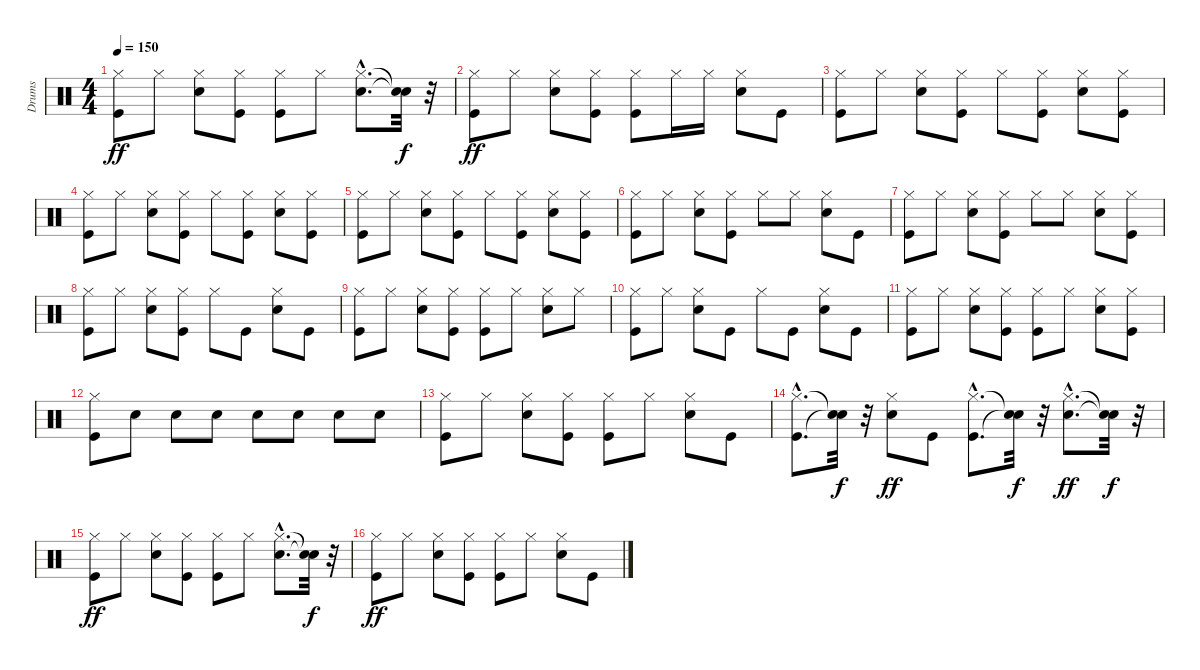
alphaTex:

\track ("Drums" "Drums") {instrument percussion}
\staff {score}
\articulation defaults
\ts (4 4)
\tempo 150
\clef neutral
\ks c
("Kick (hit)" "Hi-Hat (closed)").8{dy ff} "Hi-Hat (closed)".8 ("Snare (hit) 2" "Hi-Hat (closed)").8 ("Kick (hit)" "Hi-Hat (closed)").8 ("Kick (hit)" "Hi-Hat (closed)").8 "Hi-Hat (closed)".8 ("Snare (hit) 2"{hac} "Hi-Hat (closed)"{hac}).8{d} ("Snare (hit)"{t} "Snare (hit)"{t}).32{dy f} r.32 |
("Kick (hit)" "Hi-Hat (closed)").8{dy ff} "Hi-Hat (closed)".8 ("Snare (hit) 2" "Hi-Hat (closed)").8 ("Kick (hit)" "Hi-Hat (closed)").8 ("Kick (hit)" "Hi-Hat (closed)").8 "Hi-Hat (closed)".16 "Hi-Hat (closed)".16 ("Snare (hit) 2" "Hi-Hat (closed)").8 "Kick (hit)".8 |
("Kick (hit)" "Hi-Hat (closed)").8 "Hi-Hat (closed)".8 ("Snare (hit) 2" "Hi-Hat (closed)").8 ("Kick (hit)" "Hi-Hat (closed)").8 "Hi-Hat (closed)".8 ("Kick (hit)" "Hi-Hat (closed)").8 ("Snare (hit) 2" "Hi-Hat (closed)").8 ("Kick (hit)" "Hi-Hat (closed)").8 |
("Kick (hit)" "Hi-Hat (closed)").8 "Hi-Hat (closed)".8 ("Snare (hit) 2" "Hi-Hat (closed)").8 ("Kick (hit)" "Hi-Hat (closed)").8 "Hi-Hat (closed)".8 ("Kick (hit)" "Hi-Hat (closed)").8 ("Snare (hit) 2" "Hi-Hat (closed)").8 ("Kick (hit)" "Hi-Hat (closed)").8 |
("Kick (hit)" "Hi-Hat (closed)").8 "Hi-Hat (closed)".8 ("Snare (hit) 2" "Hi-Hat (closed)").8 ("Kick (hit)" "Hi-Hat (closed)").8 "Hi-Hat (closed)".8 ("Kick (hit)" "Hi-Hat (closed)").8 ("Snare (hit) 2" "Hi-Hat (closed)").8 ("Kick (hit)" "Hi-Hat (closed)").8 |
("Kick (hit)" "Hi-Hat (closed)").8 "Hi-Hat (closed)".8 ("Snare (hit) 2" "Hi-Hat (closed)").8 ("Kick (hit)" "Hi-Hat (closed)").8 "Hi-Hat (closed)".8 "Hi-Hat (closed)".8 ("Snare (hit) 2" "Hi-Hat (closed)").8 "Kick (hit)".8 |
("Kick (hit)" "Hi-Hat (closed)").8 "Hi-Hat (closed)".8 ("Snare (hit) 2" "Hi-Hat (closed)").8 ("Kick (hit)" "Hi-Hat (closed)").8 "Hi-Hat (closed)".8 "Hi-Hat (closed)".8 ("Snare (hit) 2" "Hi-Hat (closed)").8 ("Kick (hit)" "Hi-Hat (closed)").8 |
("Kick (hit)" "Hi-Hat (closed)").8 "Hi-Hat (closed)".8 ("Snare (hit) 2" "Hi-Hat (closed)").8 ("Kick (hit)" "Hi-Hat (closed)").8 "Hi-Hat (closed)".8 "Kick (hit)".8 ("Snare (hit) 2" "Hi-Hat (closed)").8 "Kick (hit)".8 |
("Kick (hit)" "Hi-Hat (closed)").8 "Hi-Hat (closed)".8 ("Snare (hit) 2" "Hi-Hat (closed)").8 ("Kick (hit)" "Hi-Hat (closed)").8 ("Kick (hit)" "Hi-Hat (closed)").8 "Hi-Hat (closed)".8 ("Snare (hit) 2" "Hi-Hat (closed)").8 "Hi-Hat (closed)".8 |
("Kick (hit)" "Hi-Hat (closed)").8 "Hi-Hat (closed)".8 ("Snare (hit) 2" "Hi-Hat (closed)").8 "Kick (hit)".8 "Hi-Hat (closed)".8 "Kick (hit)".8 ("Snare (hit) 2" "Hi-Hat (closed)").8 "Kick (hit)".8 |
("Kick (hit)" "Hi-Hat (closed)").8 "Hi-Hat (closed)".8 ("Snare (hit) 2" "Hi-Hat (closed)").8 ("Kick (hit)" "Hi-Hat (closed)").8 ("Kick (hit)" "Hi-Hat (closed)").8 "Hi-Hat (closed)".8 ("Snare (hit) 2" "Hi-Hat (closed)").8 ("Kick (hit)" "Hi-Hat (closed)").8 |
("Kick (hit)" "Hi-Hat (closed)").8 "Snare (hit) 2".8 "Snare (hit) 2".8 "Snare (hit) 2".8 "Snare (hit) 2".8 "Snare (hit) 2".8 "Snare (hit) 2".8 "Snare (hit) 2".8 |
("Kick (hit)" "Hi-Hat (closed)").8 "Hi-Hat (closed)".8 ("Snare (hit) 2" "Hi-Hat (closed)").8 ("Kick (hit)" "Hi-Hat (closed)").8 ("Kick (hit)" "Hi-Hat (closed)").8 "Hi-Hat (closed)".8 ("Snare (hit) 2" "Hi-Hat (closed)").8 "Kick (hit)".8 |
("Kick (hit)"{hac} "Hi-Hat (closed)"{hac}).8{d} ("Snare (hit)"{t} "Snare (hit)"{t}).32{dy f} r.32 ("Snare (hit) 2" "Hi-Hat (closed)").8{dy ff} "Kick (hit)".8 ("Kick (hit)"{hac} "Hi-Hat (closed)"{hac}).8{d} ("Snare (hit)"{t} "Snare (hit)"{t}).32{dy f} r.32 ("Snare (hit) 2"{hac} "Hi-Hat (closed)"{hac}).8{d dy ff} ("Snare (hit)"{t} "Snare (hit)"{t}).32{dy f} r.32 |
("Kick (hit)" "Hi-Hat (closed)").8{dy ff} "Hi-Hat (closed)".8 ("Snare (hit) 2" "Hi-Hat (closed)").8 ("Kick (hit)" "Hi-Hat (closed)").8 ("Kick (hit)" "Hi-Hat (closed)").8 "Hi-Hat (closed)".8 ("Snare (hit) 2"{hac} "Hi-Hat (closed)"{hac}).8{d} ("Snare (hit)"{t} "Snare (hit)"{t}).32{dy f} r.32 |
("Kick (hit)" "Hi-Hat (closed)").8{dy ff} "Hi-Hat (closed)".8 ("Snare (hit) 2" "Hi-Hat (closed)").8 ("Kick (hit)" "Hi-Hat (closed)").8 ("Kick (hit)" "Hi-Hat (closed)").8 "Hi-Hat (closed)".8 ("Snare (hit) 2" "Hi-Hat (closed)").8 "Kick (hit)".8
